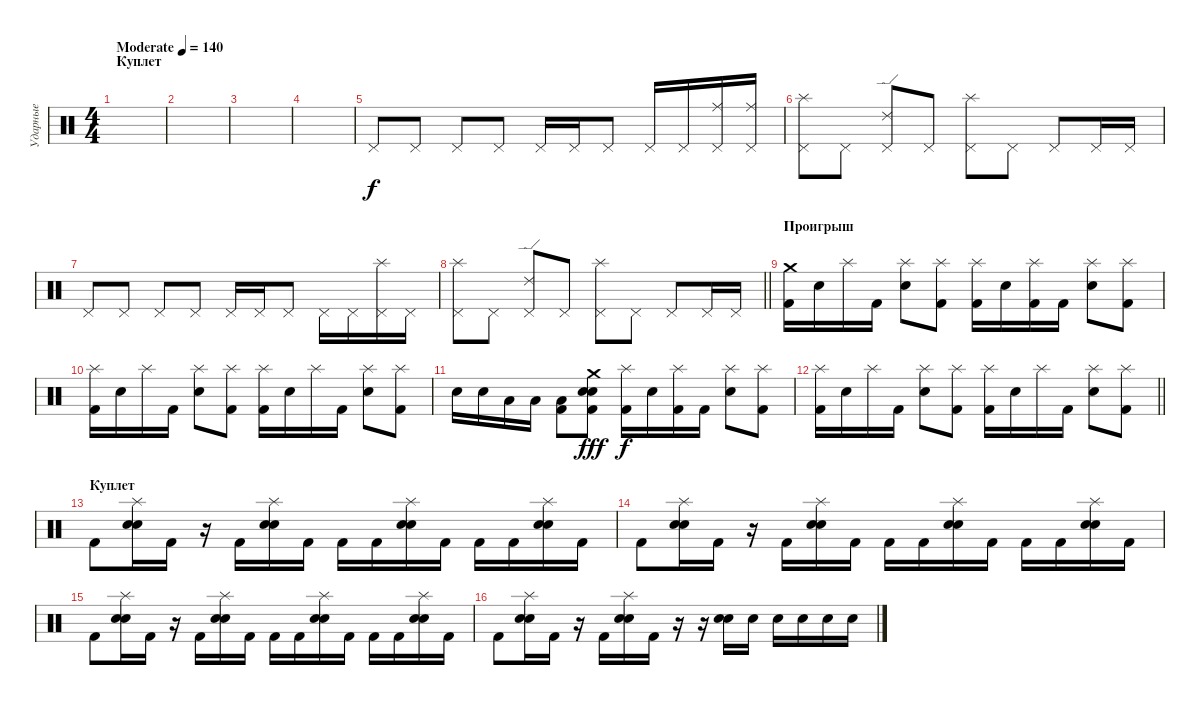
\track ("Ударные" "Ударные") {instrument percussion}
\staff {score}
\articulation defaults
\ts (4 4)
\section ("" "Куплет")
\tempo (140 "Moderate")
\clef neutral
\ks c
|
|
|
|
"Pedal Hi-Hat (hit)".8 "Pedal Hi-Hat (hit)".8 "Pedal Hi-Hat (hit)".8 "Pedal Hi-Hat (hit)".8 "Pedal Hi-Hat (hit)".16 "Pedal Hi-Hat (hit)".16 "Pedal Hi-Hat (hit)".8 "Pedal Hi-Hat (hit)".16 "Pedal Hi-Hat (hit)".16 ("Ride (middle)" "Pedal Hi-Hat (hit)").16 ("Ride (middle)" "Pedal Hi-Hat (hit)").16 |
("Splash (hit)" "Pedal Hi-Hat (hit)").8 "Pedal Hi-Hat (hit)".8 ("Ride (edge) 2" "Pedal Hi-Hat (hit)").8 "Pedal Hi-Hat (hit)".8 ("Splash (hit)" "Pedal Hi-Hat (hit)").8 "Pedal Hi-Hat (hit)".8 "Pedal Hi-Hat (hit)".8 "Pedal Hi-Hat (hit)".16 "Pedal Hi-Hat (hit)".16 |
"Pedal Hi-Hat (hit)".8 "Pedal Hi-Hat (hit)".8 "Pedal Hi-Hat (hit)".8 "Pedal Hi-Hat (hit)".8 "Pedal Hi-Hat (hit)".16 "Pedal Hi-Hat (hit)".16 "Pedal Hi-Hat (hit)".8 "Pedal Hi-Hat (hit)".16 "Pedal Hi-Hat (hit)".16 ("Splash (hit)" "Pedal Hi-Hat (hit)").16 "Pedal Hi-Hat (hit)".16 |
\barLineRight lightlight
("Splash (hit)" "Pedal Hi-Hat (hit)").8 "Pedal Hi-Hat (hit)".8 ("Ride (edge) 2" "Pedal Hi-Hat (hit)").8 "Pedal Hi-Hat (hit)".8 ("Splash (hit)" "Pedal Hi-Hat (hit)").8 "Pedal Hi-Hat (hit)".8 "Pedal Hi-Hat (hit)".8 "Pedal Hi-Hat (hit)".16 "Pedal Hi-Hat (hit)".16 |
\section ("" "Проигрыш")
("Crash medium (hit)" "Kick (hit) 2").16 "Electric Snare (hit)".16 "Splash (hit)".16 "Kick (hit) 2".16 ("Splash (hit)" "Electric Snare (hit)").8 ("Splash (hit)" "Kick (hit) 2").8 ("Splash (hit)" "Kick (hit) 2").16 "Electric Snare (hit)".16 ("Splash (hit)" "Kick (hit) 2").16 "Kick (hit) 2".16 ("Splash (hit)" "Electric Snare (hit)").8 ("Splash (hit)" "Kick (hit) 2").8 |
("Splash (hit)" "Kick (hit) 2").16 "Electric Snare (hit)".16 "Splash (hit)".16 "Kick (hit) 2".16 ("Splash (hit)" "Electric Snare (hit)").8 ("Splash (hit)" "Kick (hit) 2").8 ("Splash (hit)" "Kick (hit) 2").16 "Electric Snare (hit)".16 "Splash (hit)".16 "Kick (hit) 2".16 ("Splash (hit)" "Electric Snare (hit)").8 ("Splash (hit)" "Kick (hit) 2").8 |
"Electric Snare (hit)".16 "Electric Snare (hit)".16 "Low Tom (hit)".16 "Low Tom (hit)".16 ("Low Tom (hit)" "Kick (hit) 2").8 ("Crash medium (hit)" "Electric Snare (hit)" "Snare (hit) 2" "Kick (hit) 2").8{dy fff} ("Splash (hit)" "Kick (hit) 2").16{dy f} "Electric Snare (hit)".16 ("Splash (hit)" "Kick (hit) 2").16 "Kick (hit) 2".16 ("Splash (hit)" "Electric Snare (hit)").8 ("Splash (hit)" "Kick (hit) 2").8 |
\barLineRight lightlight
("Splash (hit)" "Kick (hit) 2").16 "Electric Snare (hit)".16 "Splash (hit)".16 "Kick (hit) 2".16 ("Splash (hit)" "Electric Snare (hit)").8 ("Splash (hit)" "Kick (hit) 2").8 ("Splash (hit)" "Kick (hit) 2").16 "Electric Snare (hit)".16 "Splash (hit)".16 "Kick (hit) 2".16 ("Splash (hit)" "Electric Snare (hit)").8 ("Splash (hit)" "Kick (hit) 2").8 |
\section ("" "Куплет")
"Kick (hit) 2".8 ("Splash (hit)" "Electric Snare (hit)" "Snare (hit) 2").16 "Kick (hit) 2".16 r.16 "Kick (hit) 2".16 ("Splash (hit)" "Electric Snare (hit)" "Snare (hit) 2").16 "Kick (hit) 2".16 "Kick (hit) 2".16 "Kick (hit) 2".16 ("Splash (hit)" "Electric Snare (hit)" "Snare (hit) 2").16 "Kick (hit) 2".16 "Kick (hit) 2".16 "Kick (hit) 2".16 ("Splash (hit)" "Electric Snare (hit)" "Snare (hit) 2").16 "Kick (hit) 2".16 |
"Kick (hit) 2".8 ("Splash (hit)" "Electric Snare (hit)" "Snare (hit) 2").16 "Kick (hit) 2".16 r.16 "Kick (hit) 2".16 ("Splash (hit)" "Electric Snare (hit)" "Snare (hit) 2").16 "Kick (hit) 2".16 "Kick (hit) 2".16 "Kick (hit) 2".16 ("Splash (hit)" "Electric Snare (hit)" "Snare (hit) 2").16 "Kick (hit) 2".16 "Kick (hit) 2".16 "Kick (hit) 2".16 ("Splash (hit)" "Electric Snare (hit)" "Snare (hit) 2").16 "Kick (hit) 2".16 |
"Kick (hit) 2".8 ("Splash (hit)" "Electric Snare (hit)" "Snare (hit) 2").16 "Kick (hit) 2".16 r.16 "Kick (hit) 2".16 ("Splash (hit)" "Electric Snare (hit)" "Snare (hit) 2").16 "Kick (hit) 2".16 "Kick (hit) 2".16 "Kick (hit) 2".16 ("Splash (hit)" "Electric Snare (hit)" "Snare (hit) 2").16 "Kick (hit) 2".16 "Kick (hit) 2".16 "Kick (hit) 2".16 ("Splash (hit)" "Electric Snare (hit)" "Snare (hit) 2").16 "Kick (hit) 2".16 |
"Kick (hit) 2".8 ("Splash (hit)" "Electric Snare (hit)" "Snare (hit) 2").16 "Kick (hit) 2".16 r.16 "Kick (hit) 2".16 ("Splash (hit)" "Electric Snare (hit)" "Snare (hit) 2").16 "Kick (hit) 2".16 r.16 r.16 ("Electric Snare (hit)" "Snare (hit) 2").16 "Electric Snare (hit)".16 "Electric Snare (hit)".16 "Electric Snare (hit)".16 "Electric Snare (hit)".16 "Electric Snare (hit)".16
